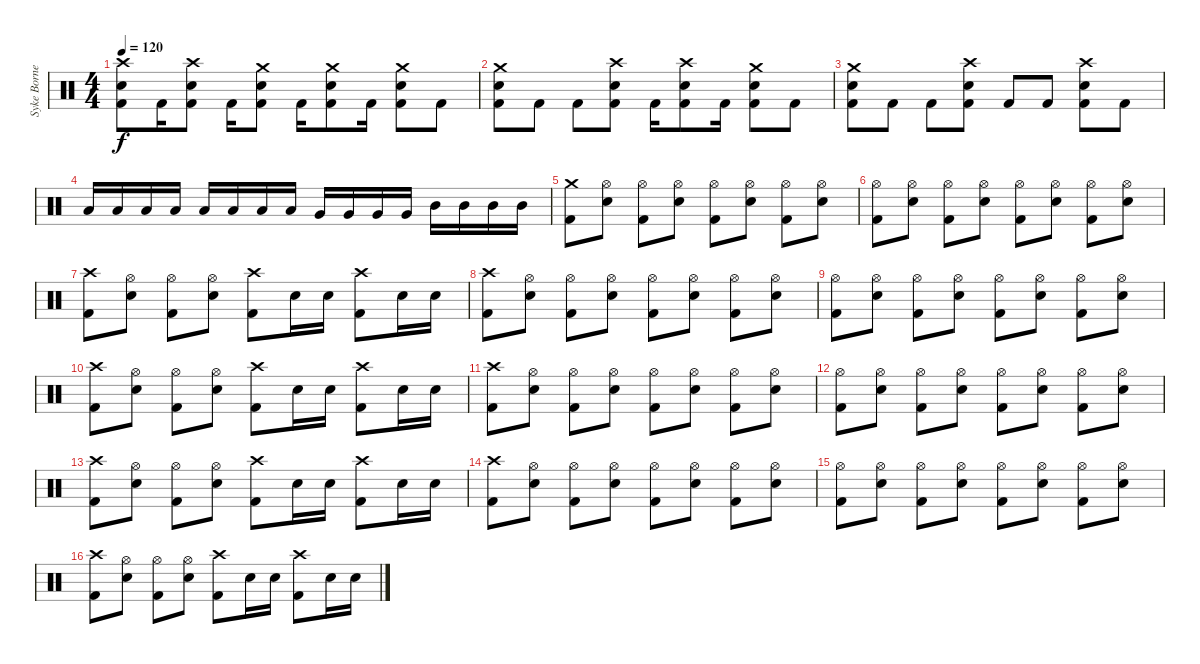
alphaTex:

\track ("Syke Bornetto (Drums)" "Syke Borne") {instrument percussion}
\staff {score}
\articulation defaults
\ts (4 4)
\tempo 120
\tempo 200
\tempo 120
\clef neutral
\ks c
("Crash high (hit)" "Electric Snare (hit)" "Kick (hit) 2").8{dy f} "Kick (hit) 2".16 ("Crash high (hit)" "Electric Snare (hit)" "Kick (hit) 2").8 "Kick (hit) 2".16 ("Crash medium (hit)" "Electric Snare (hit)" "Kick (hit) 2").8 "Kick (hit) 2".16 ("Crash medium (hit)" "Electric Snare (hit)" "Kick (hit) 2").8 "Kick (hit) 2".16 ("Crash medium (hit)" "Electric Snare (hit)" "Kick (hit) 2").8 "Kick (hit) 2".8 |
("Crash medium (hit)" "Electric Snare (hit)" "Kick (hit) 2").8 "Kick (hit) 2".8 "Kick (hit) 2".8 ("Crash high (hit)" "Electric Snare (hit)" "Kick (hit) 2").8 "Kick (hit) 2".16 ("Crash high (hit)" "Electric Snare (hit)" "Kick (hit) 2").8 "Kick (hit) 2".16 ("Crash medium (hit)" "Electric Snare (hit)" "Kick (hit) 2").8 "Kick (hit) 2".8 |
("Crash medium (hit)" "Electric Snare (hit)" "Kick (hit) 2").8 "Kick (hit) 2".8 "Kick (hit) 2".8 ("Crash high (hit)" "Electric Snare (hit)" "Kick (hit) 2").8 "Kick (hit) 2".8 "Kick (hit) 2".8 ("Crash high (hit)" "Electric Snare (hit)" "Kick (hit) 2").8 "Kick (hit) 2".8 |
"Low Tom (hit)".16 "Low Tom (hit)".16 "Low Tom (hit)".16 "Low Tom (hit)".16 "Low Floor Tom (hit)".16 "Low Floor Tom (hit)".16 "Low Floor Tom (hit)".16 "Low Floor Tom (hit)".16 "Very Low Tom (hit)".16 "Very Low Tom (hit)".16 "Very Low Tom (hit)".16 "Very Low Tom (hit)".16 "Mid Tom (hit)".16 "Mid Tom (hit)".16 "Mid Tom (hit)".16 "Mid Tom (hit)".16 |
("Crash medium (hit)" "Kick (hit) 2").8 ("Hi-Hat (open)" "Electric Snare (hit)").8 ("Hi-Hat (open)" "Kick (hit) 2").8 ("Hi-Hat (open)" "Electric Snare (hit)").8 ("Hi-Hat (open)" "Kick (hit) 2").8 ("Hi-Hat (open)" "Electric Snare (hit)").8 ("Hi-Hat (open)" "Kick (hit) 2").8 ("Hi-Hat (open)" "Electric Snare (hit)").8 |
("Hi-Hat (open)" "Kick (hit) 2").8 ("Hi-Hat (open)" "Electric Snare (hit)").8 ("Hi-Hat (open)" "Kick (hit) 2").8 ("Hi-Hat (open)" "Electric Snare (hit)").8 ("Hi-Hat (open)" "Kick (hit) 2").8 ("Hi-Hat (open)" "Electric Snare (hit)").8 ("Hi-Hat (open)" "Kick (hit) 2").8 ("Hi-Hat (open)" "Electric Snare (hit)").8 |
("Crash high (hit)" "Kick (hit) 2").8 ("Hi-Hat (open)" "Electric Snare (hit)").8 ("Hi-Hat (open)" "Kick (hit) 2").8 ("Hi-Hat (open)" "Electric Snare (hit)").8 ("Crash high (hit)" "Kick (hit) 2").8 "Electric Snare (hit)".16 "Electric Snare (hit)".16 ("Crash high (hit)" "Kick (hit) 2").8 "Electric Snare (hit)".16 "Electric Snare (hit)".16 |
("Crash high (hit)" "Kick (hit) 2").8 ("Hi-Hat (open)" "Electric Snare (hit)").8 ("Hi-Hat (open)" "Kick (hit) 2").8 ("Hi-Hat (open)" "Electric Snare (hit)").8 ("Hi-Hat (open)" "Kick (hit) 2").8 ("Hi-Hat (open)" "Electric Snare (hit)").8 ("Hi-Hat (open)" "Kick (hit) 2").8 ("Hi-Hat (open)" "Electric Snare (hit)").8 |
("Hi-Hat (open)" "Kick (hit) 2").8 ("Hi-Hat (open)" "Electric Snare (hit)").8 ("Hi-Hat (open)" "Kick (hit) 2").8 ("Hi-Hat (open)" "Electric Snare (hit)").8 ("Hi-Hat (open)" "Kick (hit) 2").8 ("Hi-Hat (open)" "Electric Snare (hit)").8 ("Hi-Hat (open)" "Kick (hit) 2").8 ("Hi-Hat (open)" "Electric Snare (hit)").8 |
("Crash high (hit)" "Kick (hit) 2").8 ("Hi-Hat (open)" "Electric Snare (hit)").8 ("Hi-Hat (open)" "Kick (hit) 2").8 ("Hi-Hat (open)" "Electric Snare (hit)").8 ("Crash high (hit)" "Kick (hit) 2").8 "Electric Snare (hit)".16 "Electric Snare (hit)".16 ("Crash high (hit)" "Kick (hit) 2").8 "Electric Snare (hit)".16 "Electric Snare (hit)".16 |
("Crash high (hit)" "Kick (hit) 2").8 ("Hi-Hat (open)" "Electric Snare (hit)").8 ("Hi-Hat (open)" "Kick (hit) 2").8 ("Hi-Hat (open)" "Electric Snare (hit)").8 ("Hi-Hat (open)" "Kick (hit) 2").8 ("Hi-Hat (open)" "Electric Snare (hit)").8 ("Hi-Hat (open)" "Kick (hit) 2").8 ("Hi-Hat (open)" "Electric Snare (hit)").8 |
("Hi-Hat (open)" "Kick (hit) 2").8 ("Hi-Hat (open)" "Electric Snare (hit)").8 ("Hi-Hat (open)" "Kick (hit) 2").8 ("Hi-Hat (open)" "Electric Snare (hit)").8 ("Hi-Hat (open)" "Kick (hit) 2").8 ("Hi-Hat (open)" "Electric Snare (hit)").8 ("Hi-Hat (open)" "Kick (hit) 2").8 ("Hi-Hat (open)" "Electric Snare (hit)").8 |
("Crash high (hit)" "Kick (hit) 2").8 ("Hi-Hat (open)" "Electric Snare (hit)").8 ("Hi-Hat (open)" "Kick (hit) 2").8 ("Hi-Hat (open)" "Electric Snare (hit)").8 ("Crash high (hit)" "Kick (hit) 2").8 "Electric Snare (hit)".16 "Electric Snare (hit)".16 ("Crash high (hit)" "Kick (hit) 2").8 "Electric Snare (hit)".16 "Electric Snare (hit)".16 |
("Crash high (hit)" "Kick (hit) 2").8 ("Hi-Hat (open)" "Electric Snare (hit)").8 ("Hi-Hat (open)" "Kick (hit) 2").8 ("Hi-Hat (open)" "Electric Snare (hit)").8 ("Hi-Hat (open)" "Kick (hit) 2").8 ("Hi-Hat (open)" "Electric Snare (hit)").8 ("Hi-Hat (open)" "Kick (hit) 2").8 ("Hi-Hat (open)" "Electric Snare (hit)").8 |
("Hi-Hat (open)" "Kick (hit) 2").8 ("Hi-Hat (open)" "Electric Snare (hit)").8 ("Hi-Hat (open)" "Kick (hit) 2").8 ("Hi-Hat (open)" "Electric Snare (hit)").8 ("Hi-Hat (open)" "Kick (hit) 2").8 ("Hi-Hat (open)" "Electric Snare (hit)").8 ("Hi-Hat (open)" "Kick (hit) 2").8 ("Hi-Hat (open)" "Electric Snare (hit)").8 |
("Crash high (hit)" "Kick (hit) 2").8 ("Hi-Hat (open)" "Electric Snare (hit)").8 ("Hi-Hat (open)" "Kick (hit) 2").8 ("Hi-Hat (open)" "Electric Snare (hit)").8 ("Crash high (hit)" "Kick (hit) 2").8 "Electric Snare (hit)".16 "Electric Snare (hit)".16 ("Crash high (hit)" "Kick (hit) 2").8 "Electric Snare (hit)".16 "Electric Snare (hit)".16
